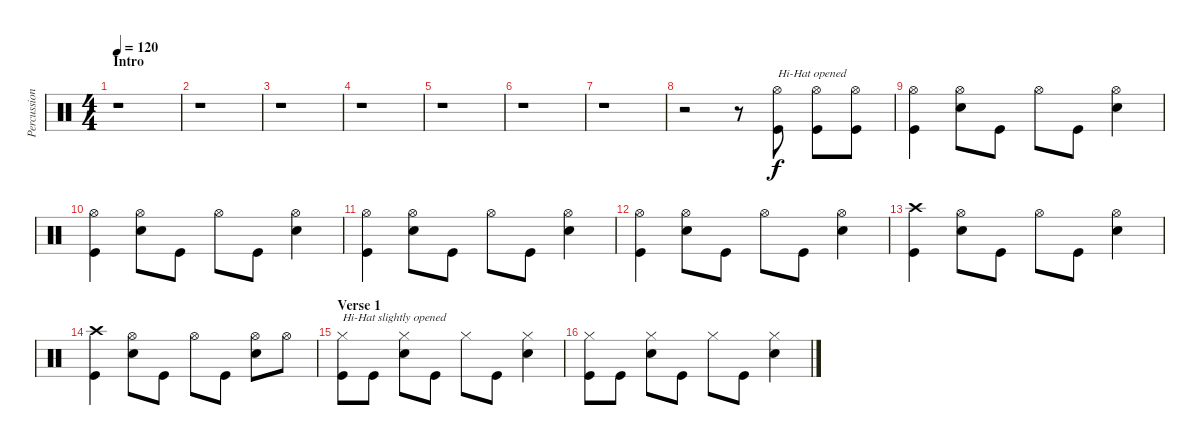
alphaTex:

\track ("Percussion" "Percussion") {instrument percussion}
\staff {score}
\articulation defaults
\ts (4 4)
\section ("" "Intro")
\tempo 120
\clef neutral
\ks c
r.1{dy f} |
r.1 |
r.1 |
r.1 |
r.1 |
r.1 |
r.1 |
r.2 r.8 ("Hi-Hat (open)" "Kick (hit)").8{txt "Hi-Hat opened"} ("Hi-Hat (open)" "Kick (hit)").8 ("Hi-Hat (open)" "Kick (hit)").8 |
("Hi-Hat (open)" "Kick (hit)").4 ("Hi-Hat (open)" "Snare (hit) 2").8 "Kick (hit)".8 "Hi-Hat (open)".8 "Kick (hit)".8 ("Hi-Hat (open)" "Snare (hit) 2").4 |
("Hi-Hat (open)" "Kick (hit)").4 ("Hi-Hat (open)" "Snare (hit) 2").8 "Kick (hit)".8 "Hi-Hat (open)".8 "Kick (hit)".8 ("Hi-Hat (open)" "Snare (hit) 2").4 |
("Hi-Hat (open)" "Kick (hit)").4 ("Hi-Hat (open)" "Snare (hit) 2").8 "Kick (hit)".8 "Hi-Hat (open)".8 "Kick (hit)".8 ("Hi-Hat (open)" "Snare (hit) 2").4 |
("Hi-Hat (open)" "Kick (hit)").4 ("Hi-Hat (open)" "Snare (hit) 2").8 "Kick (hit)".8 "Hi-Hat (open)".8 "Kick (hit)".8 ("Hi-Hat (open)" "Snare (hit) 2").4 |
("Crash high (hit)" "Kick (hit)").4 ("Hi-Hat (open)" "Snare (hit) 2").8 "Kick (hit)".8 "Hi-Hat (open)".8 "Kick (hit)".8 ("Hi-Hat (open)" "Snare (hit) 2").4 |
("Crash high (hit)" "Kick (hit)").4 ("Hi-Hat (open)" "Snare (hit) 2").8 "Kick (hit)".8 "Hi-Hat (open)".8 "Kick (hit)".8 ("Hi-Hat (open)" "Snare (hit) 2").8 "Hi-Hat (open)".8 |
\section ("" "Verse 1")
("Hi-Hat (closed)" "Kick (hit)").8{txt "Hi-Hat slightly opened"} "Kick (hit)".8 ("Hi-Hat (closed)" "Snare (hit) 2").8 "Kick (hit)".8 "Hi-Hat (closed)".8 "Kick (hit)".8 ("Hi-Hat (closed)" "Snare (hit) 2").4 |
("Hi-Hat (closed)" "Kick (hit)").8 "Kick (hit)".8 ("Hi-Hat (closed)" "Snare (hit) 2").8 "Kick (hit)".8 "Hi-Hat (closed)".8 "Kick (hit)".8 ("Hi-Hat (closed)" "Snare (hit) 2").4
